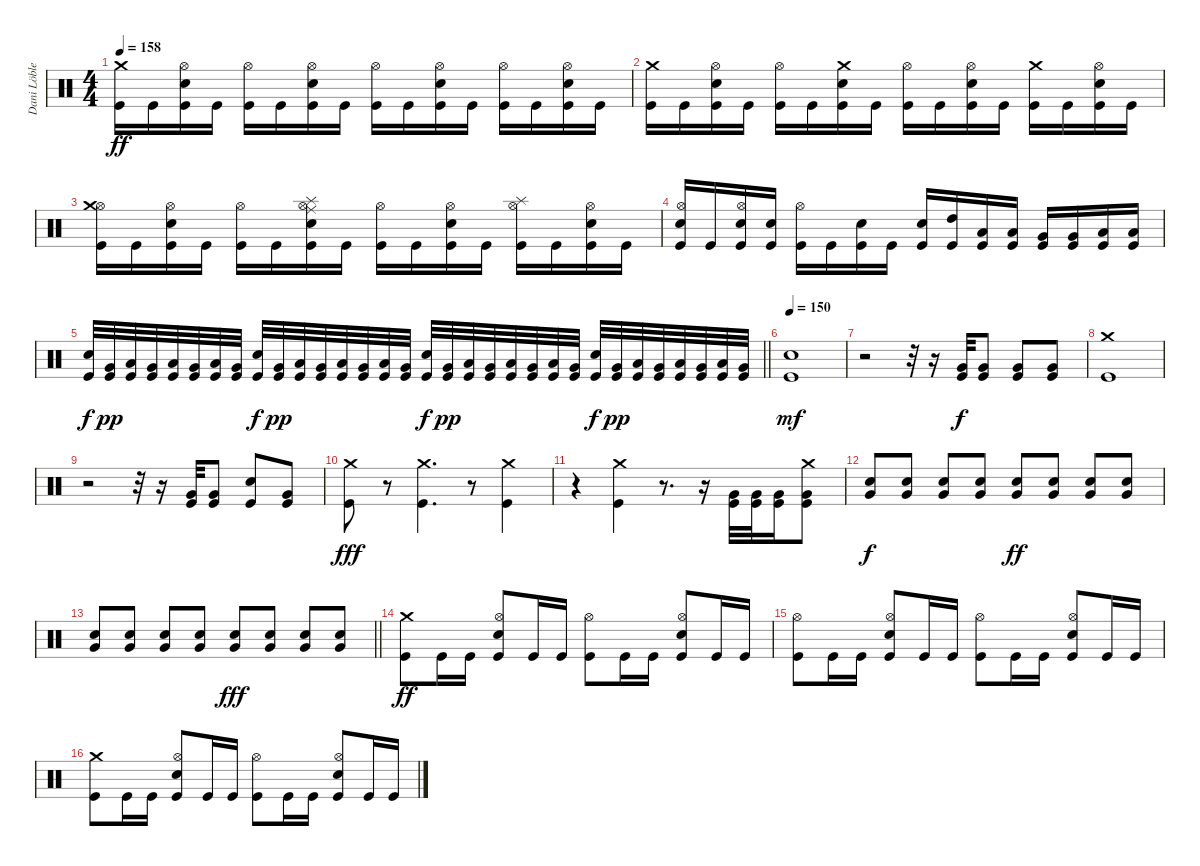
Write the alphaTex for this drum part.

\track ("Dani Löble" "Dani Löble") {instrument percussion}
\staff {score}
\articulation defaults
\ts (4 4)
\tempo 158
\clef neutral
\ks c
("Crash medium (hit)" "Kick (hit)").16{dy ff} "Kick (hit)".16 ("Hi-Hat (open)" "Electric Snare (hit)" "Kick (hit)").16 "Kick (hit)".16 ("Hi-Hat (open)" "Kick (hit)").16 "Kick (hit)".16 ("Hi-Hat (open)" "Electric Snare (hit)" "Kick (hit)").16 "Kick (hit)".16 ("Hi-Hat (open)" "Kick (hit)").16 "Kick (hit)".16 ("Hi-Hat (open)" "Electric Snare (hit)" "Kick (hit)").16 "Kick (hit)".16 ("Hi-Hat (open)" "Kick (hit)").16 "Kick (hit)".16 ("Hi-Hat (open)" "Electric Snare (hit)" "Kick (hit)").16 "Kick (hit)".16 |
("Crash medium (hit)" "Kick (hit)").16 "Kick (hit)".16 ("Hi-Hat (open)" "Electric Snare (hit)" "Kick (hit)").16 "Kick (hit)".16 ("Hi-Hat (open)" "Kick (hit)").16 "Kick (hit)".16 ("Crash medium (hit)" "Electric Snare (hit)" "Kick (hit)").16 "Kick (hit)".16 ("Hi-Hat (open)" "Kick (hit)").16 "Kick (hit)".16 ("Hi-Hat (open)" "Electric Snare (hit)" "Kick (hit)").16 "Kick (hit)".16 ("Crash medium (hit)" "Kick (hit)").16 "Kick (hit)".16 ("Hi-Hat (open)" "Electric Snare (hit)" "Kick (hit)").16 "Kick (hit)".16 |
("Hi-Hat (open)" "Crash medium (hit)" "Kick (hit)").16 "Kick (hit)".16 ("Hi-Hat (open)" "Electric Snare (hit)" "Kick (hit)").16 "Kick (hit)".16 ("Hi-Hat (open)" "Kick (hit)").16 "Kick (hit)".16 ("Hi-Hat (open)" "Splash (hit)" "Ride (middle)" "Electric Snare (hit)" "Kick (hit)").16 "Kick (hit)".16 ("Hi-Hat (open)" "Kick (hit)").16 "Kick (hit)".16 ("Hi-Hat (open)" "Electric Snare (hit)" "Kick (hit)").16 "Kick (hit)".16 ("Hi-Hat (open)" "Splash (hit)" "Kick (hit)").16 "Kick (hit)".16 ("Hi-Hat (open)" "Electric Snare (hit)" "Kick (hit)").16 "Kick (hit)".16 |
("Hi-Hat (open)" "Electric Snare (hit)" "Kick (hit)").16 "Kick (hit)".16 ("Hi-Hat (open)" "Electric Snare (hit)" "Kick (hit)").16 ("Electric Snare (hit)" "Kick (hit)").16 ("Hi-Hat (open)" "Kick (hit)").16 "Kick (hit)".16 ("Electric Snare (hit)" "Kick (hit)").16 "Kick (hit)".16 ("Electric Snare (hit)" "Kick (hit)").16 ("High Tom (hit)" "Kick (hit)").16 ("Low Tom (hit)" "Kick (hit)").16 ("Low Tom (hit)" "Kick (hit)").16 ("Very Low Tom (hit)" "Kick (hit)").16 ("Very Low Tom (hit)" "Kick (hit)").16 ("Low Floor Tom (hit)" "Kick (hit)").16 ("Low Floor Tom (hit)" "Kick (hit)").16 |
\barLineRight lightlight
("Electric Snare (hit)" "Kick (hit)").32{dy f} ("Very Low Tom (hit)" "Kick (hit)").32{dy pp} ("Low Floor Tom (hit)" "Kick (hit)").32 ("Very Low Tom (hit)" "Kick (hit)").32 ("Low Floor Tom (hit)" "Kick (hit)").32 ("Very Low Tom (hit)" "Kick (hit)").32 ("Low Floor Tom (hit)" "Kick (hit)").32 ("Very Low Tom (hit)" "Kick (hit)").32 ("Electric Snare (hit)" "Kick (hit)").32{dy f} ("Very Low Tom (hit)" "Kick (hit)").32{dy pp} ("Low Floor Tom (hit)" "Kick (hit)").32 ("Very Low Tom (hit)" "Kick (hit)").32 ("Low Floor Tom (hit)" "Kick (hit)").32 ("Very Low Tom (hit)" "Kick (hit)").32 ("Low Floor Tom (hit)" "Kick (hit)").32 ("Very Low Tom (hit)" "Kick (hit)").32 ("Electric Snare (hit)" "Kick (hit)").32{dy f} ("Very Low Tom (hit)" "Kick (hit)").32{dy pp} ("Low Floor Tom (hit)" "Kick (hit)").32 ("Very Low Tom (hit)" "Kick (hit)").32 ("Low Floor Tom (hit)" "Kick (hit)").32 ("Very Low Tom (hit)" "Kick (hit)").32 ("Low Floor Tom (hit)" "Kick (hit)").32 ("Very Low Tom (hit)" "Kick (hit)").32 ("Electric Snare (hit)" "Kick (hit)").32{dy f} ("Very Low Tom (hit)" "Kick (hit)").32{dy pp} ("Low Floor Tom (hit)" "Kick (hit)").32 ("Very Low Tom (hit)" "Kick (hit)").32 ("Low Floor Tom (hit)" "Kick (hit)").32 ("Very Low Tom (hit)" "Kick (hit)").32 ("Low Floor Tom (hit)" "Kick (hit)").32 ("Very Low Tom (hit)" "Kick (hit)").32 |
\section ("" "")
\tempo 150
("Electric Snare (hit)" "Kick (hit)").1{dy mf} |
r.2 r.32 r.16 ("Very Low Tom (hit)" "Kick (hit)").32{dy f} ("Very Low Tom (hit)" "Kick (hit)").8 ("Very Low Tom (hit)" "Kick (hit)").8 ("Very Low Tom (hit)" "Kick (hit)").8 |
("Crash medium (hit)" "Kick (hit)").1 |
r.2 r.32 r.16 ("Very Low Tom (hit)" "Kick (hit)").32 ("Very Low Tom (hit)" "Kick (hit)").8 ("Electric Snare (hit)" "Kick (hit)").8 ("Very Low Tom (hit)" "Kick (hit)").8 |
("Crash medium (hit)" "Kick (hit)").8{dy fff} r.8 ("Crash medium (hit)" "Kick (hit)").4{d} r.8 ("Crash medium (hit)" "Kick (hit)").4 |
r.4 ("Crash medium (hit)" "Kick (hit)").4 r.8{d} r.16 ("Very Low Tom (hit)" "Kick (hit)").32 ("Very Low Tom (hit)" "Kick (hit)").32 ("Very Low Tom (hit)" "Kick (hit)").16 ("Crash medium (hit)" "Very Low Tom (hit)" "Kick (hit)").8 |
("Electric Snare (hit)" "Very Low Tom (hit)").8{dy f} ("Electric Snare (hit)" "Very Low Tom (hit)").8 ("Electric Snare (hit)" "Very Low Tom (hit)").8 ("Electric Snare (hit)" "Very Low Tom (hit)").8 ("Electric Snare (hit)" "Very Low Tom (hit)").8{dy ff} ("Electric Snare (hit)" "Very Low Tom (hit)").8 ("Electric Snare (hit)" "Very Low Tom (hit)").8 ("Electric Snare (hit)" "Very Low Tom (hit)").8 |
\barLineRight lightlight
("Electric Snare (hit)" "Very Low Tom (hit)").8 ("Electric Snare (hit)" "Very Low Tom (hit)").8 ("Electric Snare (hit)" "Very Low Tom (hit)").8 ("Electric Snare (hit)" "Very Low Tom (hit)").8 ("Electric Snare (hit)" "Very Low Tom (hit)").8{dy fff} ("Electric Snare (hit)" "Very Low Tom (hit)").8 ("Electric Snare (hit)" "Very Low Tom (hit)").8 ("Electric Snare (hit)" "Very Low Tom (hit)").8 |
\section ("" "")
("Crash medium (hit)" "Kick (hit)").8{dy ff} "Kick (hit)".16 "Kick (hit)".16 ("Hi-Hat (open)" "Electric Snare (hit)" "Kick (hit)").8 "Kick (hit)".16 "Kick (hit)".16 ("Hi-Hat (open)" "Kick (hit)").8 "Kick (hit)".16 "Kick (hit)".16 ("Hi-Hat (open)" "Electric Snare (hit)" "Kick (hit)").8 "Kick (hit)".16 "Kick (hit)".16 |
("Hi-Hat (open)" "Kick (hit)").8 "Kick (hit)".16 "Kick (hit)".16 ("Hi-Hat (open)" "Electric Snare (hit)" "Kick (hit)").8 "Kick (hit)".16 "Kick (hit)".16 ("Hi-Hat (open)" "Kick (hit)").8 "Kick (hit)".16 "Kick (hit)".16 ("Hi-Hat (open)" "Electric Snare (hit)" "Kick (hit)").8 "Kick (hit)".16 "Kick (hit)".16 |
("Crash medium (hit)" "Kick (hit)").8 "Kick (hit)".16 "Kick (hit)".16 ("Hi-Hat (open)" "Electric Snare (hit)" "Kick (hit)").8 "Kick (hit)".16 "Kick (hit)".16 ("Hi-Hat (open)" "Kick (hit)").8 "Kick (hit)".16 "Kick (hit)".16 ("Hi-Hat (open)" "Electric Snare (hit)" "Kick (hit)").8 "Kick (hit)".16 "Kick (hit)".16
